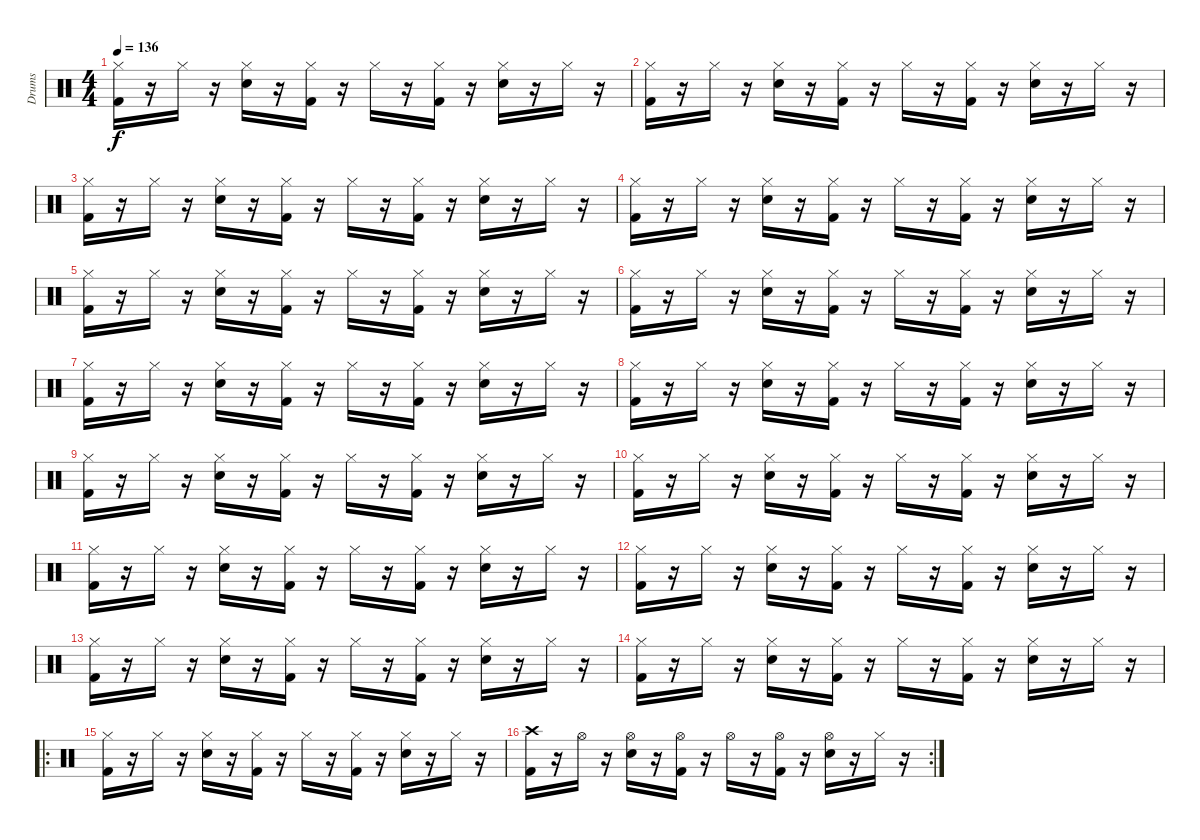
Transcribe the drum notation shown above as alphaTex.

\track ("Drums" "Drums") {instrument percussion}
\staff {score}
\articulation defaults
\ts (4 4)
\tempo 136
\clef neutral
\ks c
("Kick (hit) 2" "Hi-Hat (closed)").16{dy f} r.16 "Hi-Hat (closed)".16 r.16 ("Electric Snare (hit)" "Hi-Hat (closed)").16 r.16 ("Kick (hit) 2" "Hi-Hat (closed)").16 r.16 "Hi-Hat (closed)".16 r.16 ("Kick (hit) 2" "Hi-Hat (closed)").16 r.16 ("Electric Snare (hit)" "Hi-Hat (closed)").16 r.16 "Hi-Hat (closed)".16 r.16 |
("Kick (hit) 2" "Hi-Hat (closed)").16 r.16 "Hi-Hat (closed)".16 r.16 ("Electric Snare (hit)" "Hi-Hat (closed)").16 r.16 ("Kick (hit) 2" "Hi-Hat (closed)").16 r.16 "Hi-Hat (closed)".16 r.16 ("Kick (hit) 2" "Hi-Hat (closed)").16 r.16 ("Electric Snare (hit)" "Hi-Hat (closed)").16 r.16 "Hi-Hat (closed)".16 r.16 |
("Kick (hit) 2" "Hi-Hat (closed)").16 r.16 "Hi-Hat (closed)".16 r.16 ("Electric Snare (hit)" "Hi-Hat (closed)").16 r.16 ("Kick (hit) 2" "Hi-Hat (closed)").16 r.16 "Hi-Hat (closed)".16 r.16 ("Kick (hit) 2" "Hi-Hat (closed)").16 r.16 ("Electric Snare (hit)" "Hi-Hat (closed)").16 r.16 "Hi-Hat (closed)".16 r.16 |
("Kick (hit) 2" "Hi-Hat (closed)").16 r.16 "Hi-Hat (closed)".16 r.16 ("Electric Snare (hit)" "Hi-Hat (closed)").16 r.16 ("Kick (hit) 2" "Hi-Hat (closed)").16 r.16 "Hi-Hat (closed)".16 r.16 ("Kick (hit) 2" "Hi-Hat (closed)").16 r.16 ("Electric Snare (hit)" "Hi-Hat (closed)").16 r.16 "Hi-Hat (closed)".16 r.16 |
("Kick (hit) 2" "Hi-Hat (closed)").16 r.16 "Hi-Hat (closed)".16 r.16 ("Electric Snare (hit)" "Hi-Hat (closed)").16 r.16 ("Kick (hit) 2" "Hi-Hat (closed)").16 r.16 "Hi-Hat (closed)".16 r.16 ("Kick (hit) 2" "Hi-Hat (closed)").16 r.16 ("Electric Snare (hit)" "Hi-Hat (closed)").16 r.16 "Hi-Hat (closed)".16 r.16 |
("Kick (hit) 2" "Hi-Hat (closed)").16 r.16 "Hi-Hat (closed)".16 r.16 ("Electric Snare (hit)" "Hi-Hat (closed)").16 r.16 ("Kick (hit) 2" "Hi-Hat (closed)").16 r.16 "Hi-Hat (closed)".16 r.16 ("Kick (hit) 2" "Hi-Hat (closed)").16 r.16 ("Electric Snare (hit)" "Hi-Hat (closed)").16 r.16 "Hi-Hat (closed)".16 r.16 |
("Kick (hit) 2" "Hi-Hat (closed)").16 r.16 "Hi-Hat (closed)".16 r.16 ("Electric Snare (hit)" "Hi-Hat (closed)").16 r.16 ("Kick (hit) 2" "Hi-Hat (closed)").16 r.16 "Hi-Hat (closed)".16 r.16 ("Kick (hit) 2" "Hi-Hat (closed)").16 r.16 ("Electric Snare (hit)" "Hi-Hat (closed)").16 r.16 "Hi-Hat (closed)".16 r.16 |
("Kick (hit) 2" "Hi-Hat (closed)").16 r.16 "Hi-Hat (closed)".16 r.16 ("Electric Snare (hit)" "Hi-Hat (closed)").16 r.16 ("Kick (hit) 2" "Hi-Hat (closed)").16 r.16 "Hi-Hat (closed)".16 r.16 ("Kick (hit) 2" "Hi-Hat (closed)").16 r.16 ("Electric Snare (hit)" "Hi-Hat (closed)").16 r.16 "Hi-Hat (closed)".16 r.16 |
("Kick (hit) 2" "Hi-Hat (closed)").16 r.16 "Hi-Hat (closed)".16 r.16 ("Electric Snare (hit)" "Hi-Hat (closed)").16 r.16 ("Kick (hit) 2" "Hi-Hat (closed)").16 r.16 "Hi-Hat (closed)".16 r.16 ("Kick (hit) 2" "Hi-Hat (closed)").16 r.16 ("Electric Snare (hit)" "Hi-Hat (closed)").16 r.16 "Hi-Hat (closed)".16 r.16 |
("Kick (hit) 2" "Hi-Hat (closed)").16 r.16 "Hi-Hat (closed)".16 r.16 ("Electric Snare (hit)" "Hi-Hat (closed)").16 r.16 ("Kick (hit) 2" "Hi-Hat (closed)").16 r.16 "Hi-Hat (closed)".16 r.16 ("Kick (hit) 2" "Hi-Hat (closed)").16 r.16 ("Electric Snare (hit)" "Hi-Hat (closed)").16 r.16 "Hi-Hat (closed)".16 r.16 |
("Kick (hit) 2" "Hi-Hat (closed)").16 r.16 "Hi-Hat (closed)".16 r.16 ("Electric Snare (hit)" "Hi-Hat (closed)").16 r.16 ("Kick (hit) 2" "Hi-Hat (closed)").16 r.16 "Hi-Hat (closed)".16 r.16 ("Kick (hit) 2" "Hi-Hat (closed)").16 r.16 ("Electric Snare (hit)" "Hi-Hat (closed)").16 r.16 "Hi-Hat (closed)".16 r.16 |
("Kick (hit) 2" "Hi-Hat (closed)").16 r.16 "Hi-Hat (closed)".16 r.16 ("Electric Snare (hit)" "Hi-Hat (closed)").16 r.16 ("Kick (hit) 2" "Hi-Hat (closed)").16 r.16 "Hi-Hat (closed)".16 r.16 ("Kick (hit) 2" "Hi-Hat (closed)").16 r.16 ("Electric Snare (hit)" "Hi-Hat (closed)").16 r.16 "Hi-Hat (closed)".16 r.16 |
("Kick (hit) 2" "Hi-Hat (closed)").16 r.16 "Hi-Hat (closed)".16 r.16 ("Electric Snare (hit)" "Hi-Hat (closed)").16 r.16 ("Kick (hit) 2" "Hi-Hat (closed)").16 r.16 "Hi-Hat (closed)".16 r.16 ("Kick (hit) 2" "Hi-Hat (closed)").16 r.16 ("Electric Snare (hit)" "Hi-Hat (closed)").16 r.16 "Hi-Hat (closed)".16 r.16 |
("Kick (hit) 2" "Hi-Hat (closed)").16 r.16 "Hi-Hat (closed)".16 r.16 ("Electric Snare (hit)" "Hi-Hat (closed)").16 r.16 ("Kick (hit) 2" "Hi-Hat (closed)").16 r.16 "Hi-Hat (closed)".16 r.16 ("Kick (hit) 2" "Hi-Hat (closed)").16 r.16 ("Electric Snare (hit)" "Hi-Hat (closed)").16 r.16 "Hi-Hat (closed)".16 r.16 |
\ro
("Kick (hit) 2" "Hi-Hat (closed)").16 r.16 "Hi-Hat (closed)".16 r.16 ("Electric Snare (hit)" "Hi-Hat (closed)").16 r.16 ("Kick (hit) 2" "Hi-Hat (closed)").16 r.16 "Hi-Hat (closed)".16 r.16 ("Kick (hit) 2" "Hi-Hat (closed)").16 r.16 ("Electric Snare (hit)" "Hi-Hat (closed)").16 r.16 "Hi-Hat (closed)".16 r.16 |
\rc 2
("Kick (hit) 2" "Crash high (hit)").16 r.16 "Hi-Hat (open)".16 r.16 ("Electric Snare (hit)" "Hi-Hat (open)").16 r.16 ("Kick (hit) 2" "Hi-Hat (open)").16 r.16 "Hi-Hat (open)".16 r.16 ("Kick (hit) 2" "Hi-Hat (open)").16 r.16 ("Electric Snare (hit)" "Hi-Hat (open)").16 r.16 "Hi-Hat (closed)".16 r.16
